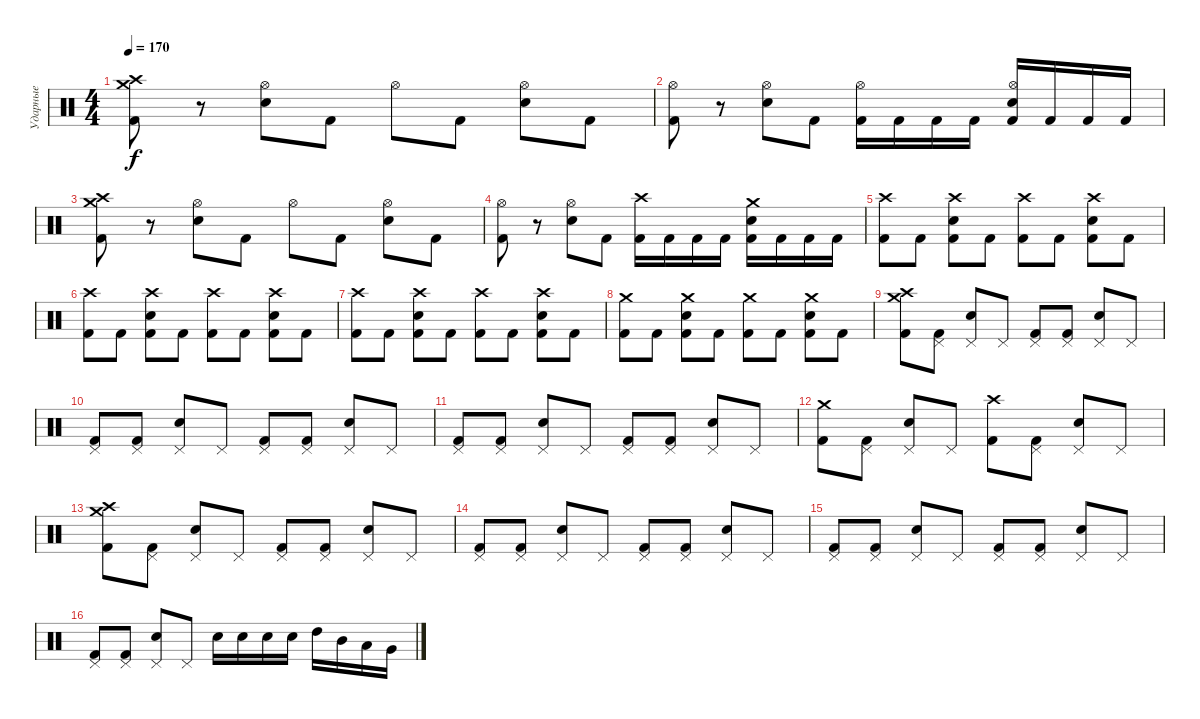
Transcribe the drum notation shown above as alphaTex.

\track ("Ударные" "Ударные") {instrument percussion}
\staff {score}
\articulation defaults
\ts (4 4)
\tempo 170
\clef neutral
\ks c
("Crash medium (hit)" "Crash high (hit)" "Kick (hit) 2").8{dy f} r.8 ("Hi-Hat (open)" "Electric Snare (hit)").8 "Kick (hit) 2".8 "Hi-Hat (open)".8 "Kick (hit) 2".8 ("Hi-Hat (open)" "Electric Snare (hit)").8 "Kick (hit) 2".8 |
("Hi-Hat (open)" "Kick (hit) 2").8 r.8 ("Hi-Hat (open)" "Electric Snare (hit)").8 "Kick (hit) 2".8 ("Hi-Hat (open)" "Kick (hit) 2").16 "Kick (hit) 2".16 "Kick (hit) 2".16 "Kick (hit) 2".16 ("Hi-Hat (open)" "Electric Snare (hit)" "Kick (hit) 2").16 "Kick (hit) 2".16 "Kick (hit) 2".16 "Kick (hit) 2".16 |
("Crash medium (hit)" "Crash high (hit)" "Kick (hit) 2").8 r.8 ("Hi-Hat (open)" "Electric Snare (hit)").8 "Kick (hit) 2".8 "Hi-Hat (open)".8 "Kick (hit) 2".8 ("Hi-Hat (open)" "Electric Snare (hit)").8 "Kick (hit) 2".8 |
("Hi-Hat (open)" "Kick (hit) 2").8 r.8 ("Hi-Hat (open)" "Electric Snare (hit)").8 "Kick (hit) 2".8 ("Crash high (hit)" "Kick (hit) 2").16 "Kick (hit) 2".16 "Kick (hit) 2".16 "Kick (hit) 2".16 ("Crash medium (hit)" "Electric Snare (hit)" "Kick (hit) 2").16 "Kick (hit) 2".16 "Kick (hit) 2".16 "Kick (hit) 2".16 |
("Crash high (hit)" "Kick (hit) 2").8 "Kick (hit) 2".8 ("Crash high (hit)" "Electric Snare (hit)" "Kick (hit) 2").8 "Kick (hit) 2".8 ("Crash high (hit)" "Kick (hit) 2").8 "Kick (hit) 2".8 ("Crash high (hit)" "Electric Snare (hit)" "Kick (hit) 2").8 "Kick (hit) 2".8 |
("Crash high (hit)" "Kick (hit) 2").8 "Kick (hit) 2".8 ("Crash high (hit)" "Electric Snare (hit)" "Kick (hit) 2").8 "Kick (hit) 2".8 ("Crash high (hit)" "Kick (hit) 2").8 "Kick (hit) 2".8 ("Crash high (hit)" "Electric Snare (hit)" "Kick (hit) 2").8 "Kick (hit) 2".8 |
("Crash high (hit)" "Kick (hit) 2").8 "Kick (hit) 2".8 ("Crash high (hit)" "Electric Snare (hit)" "Kick (hit) 2").8 "Kick (hit) 2".8 ("Crash high (hit)" "Kick (hit) 2").8 "Kick (hit) 2".8 ("Crash high (hit)" "Electric Snare (hit)" "Kick (hit) 2").8 "Kick (hit) 2".8 |
("Crash medium (hit)" "Kick (hit) 2").8 "Kick (hit) 2".8 ("Crash medium (hit)" "Electric Snare (hit)" "Kick (hit) 2").8 "Kick (hit) 2".8 ("Crash medium (hit)" "Kick (hit) 2").8 "Kick (hit) 2".8 ("Crash medium (hit)" "Electric Snare (hit)" "Kick (hit) 2").8 "Kick (hit) 2".8 |
("Crash medium (hit)" "Crash high (hit)" "Kick (hit) 2").8 ("Pedal Hi-Hat (hit)" "Kick (hit) 2").8 ("Pedal Hi-Hat (hit)" "Electric Snare (hit)").8 "Pedal Hi-Hat (hit)".8 ("Pedal Hi-Hat (hit)" "Kick (hit) 2").8 ("Pedal Hi-Hat (hit)" "Kick (hit) 2").8 ("Pedal Hi-Hat (hit)" "Electric Snare (hit)").8 "Pedal Hi-Hat (hit)".8 |
("Pedal Hi-Hat (hit)" "Kick (hit) 2").8 ("Pedal Hi-Hat (hit)" "Kick (hit) 2").8 ("Pedal Hi-Hat (hit)" "Electric Snare (hit)").8 "Pedal Hi-Hat (hit)".8 ("Pedal Hi-Hat (hit)" "Kick (hit) 2").8 ("Pedal Hi-Hat (hit)" "Kick (hit) 2").8 ("Pedal Hi-Hat (hit)" "Electric Snare (hit)").8 "Pedal Hi-Hat (hit)".8 |
("Pedal Hi-Hat (hit)" "Kick (hit) 2").8 ("Pedal Hi-Hat (hit)" "Kick (hit) 2").8 ("Pedal Hi-Hat (hit)" "Electric Snare (hit)").8 "Pedal Hi-Hat (hit)".8 ("Pedal Hi-Hat (hit)" "Kick (hit) 2").8 ("Pedal Hi-Hat (hit)" "Kick (hit) 2").8 ("Pedal Hi-Hat (hit)" "Electric Snare (hit)").8 "Pedal Hi-Hat (hit)".8 |
("Crash medium (hit)" "Kick (hit) 2").8 ("Pedal Hi-Hat (hit)" "Kick (hit) 2").8 ("Pedal Hi-Hat (hit)" "Electric Snare (hit)").8 "Pedal Hi-Hat (hit)".8 ("Crash high (hit)" "Kick (hit) 2").8 ("Pedal Hi-Hat (hit)" "Kick (hit) 2").8 ("Pedal Hi-Hat (hit)" "Electric Snare (hit)").8 "Pedal Hi-Hat (hit)".8 |
("Crash medium (hit)" "Crash high (hit)" "Kick (hit) 2").8 ("Pedal Hi-Hat (hit)" "Kick (hit) 2").8 ("Pedal Hi-Hat (hit)" "Electric Snare (hit)").8 "Pedal Hi-Hat (hit)".8 ("Pedal Hi-Hat (hit)" "Kick (hit) 2").8 ("Pedal Hi-Hat (hit)" "Kick (hit) 2").8 ("Pedal Hi-Hat (hit)" "Electric Snare (hit)").8 "Pedal Hi-Hat (hit)".8 |
("Pedal Hi-Hat (hit)" "Kick (hit) 2").8 ("Pedal Hi-Hat (hit)" "Kick (hit) 2").8 ("Pedal Hi-Hat (hit)" "Electric Snare (hit)").8 "Pedal Hi-Hat (hit)".8 ("Pedal Hi-Hat (hit)" "Kick (hit) 2").8 ("Pedal Hi-Hat (hit)" "Kick (hit) 2").8 ("Pedal Hi-Hat (hit)" "Electric Snare (hit)").8 "Pedal Hi-Hat (hit)".8 |
("Pedal Hi-Hat (hit)" "Kick (hit) 2").8 ("Pedal Hi-Hat (hit)" "Kick (hit) 2").8 ("Pedal Hi-Hat (hit)" "Electric Snare (hit)").8 "Pedal Hi-Hat (hit)".8 ("Pedal Hi-Hat (hit)" "Kick (hit) 2").8 ("Pedal Hi-Hat (hit)" "Kick (hit) 2").8 ("Pedal Hi-Hat (hit)" "Electric Snare (hit)").8 "Pedal Hi-Hat (hit)".8 |
("Pedal Hi-Hat (hit)" "Kick (hit) 2").8 ("Pedal Hi-Hat (hit)" "Kick (hit) 2").8 ("Pedal Hi-Hat (hit)" "Electric Snare (hit)").8 "Pedal Hi-Hat (hit)".8 "Electric Snare (hit)".16 "Electric Snare (hit)".16 "Electric Snare (hit)".16 "Electric Snare (hit)".16 "High Tom (hit)".16 "Mid Tom (hit)".16 "Low Tom (hit)".16 "Very Low Tom (hit)".16
